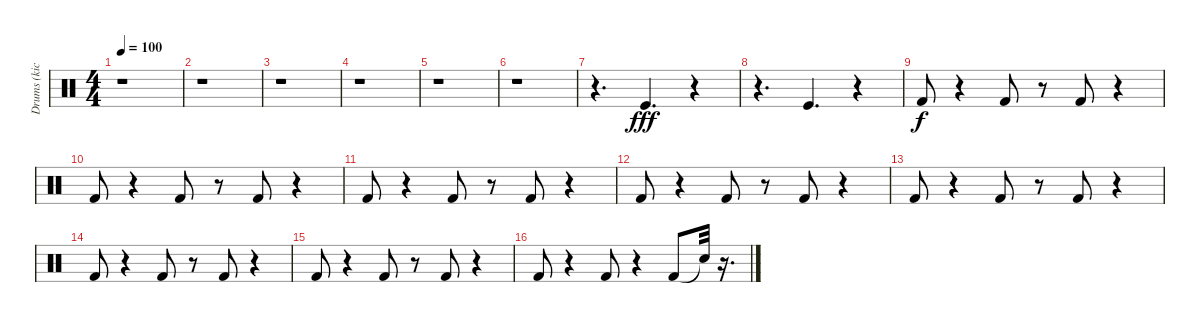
\track ("Drums (kick)" "Drums (kic") {instrument percussion}
\staff {score}
\articulation defaults
\ts (4 4)
\tempo 100
\clef neutral
\ks c
r.1{dy f} |
r.1 |
r.1 |
r.1 |
r.1 |
r.1 |
r.4{d} "Kick (hit)".4{d dy fff} r.4 |
r.4{d} "Kick (hit)".4{d} r.4 |
"Kick (hit) 2".8{dy f} r.4 "Kick (hit) 2".8 r.8 "Kick (hit) 2".8 r.4 |
"Kick (hit) 2".8 r.4 "Kick (hit) 2".8 r.8 "Kick (hit) 2".8 r.4 |
"Kick (hit) 2".8 r.4 "Kick (hit) 2".8 r.8 "Kick (hit) 2".8 r.4 |
"Kick (hit) 2".8 r.4 "Kick (hit) 2".8 r.8 "Kick (hit) 2".8 r.4 |
"Kick (hit) 2".8 r.4 "Kick (hit) 2".8 r.8 "Kick (hit) 2".8 r.4 |
"Kick (hit) 2".8 r.4 "Kick (hit) 2".8 r.8 "Kick (hit) 2".8 r.4 |
"Kick (hit) 2".8 r.4 "Kick (hit) 2".8 r.8 "Kick (hit) 2".8 r.4 |
"Kick (hit) 2".8 r.4 "Kick (hit) 2".8 r.4 "Kick (hit) 2".8 "Snare (hit)"{t}.32 r.16{d}
